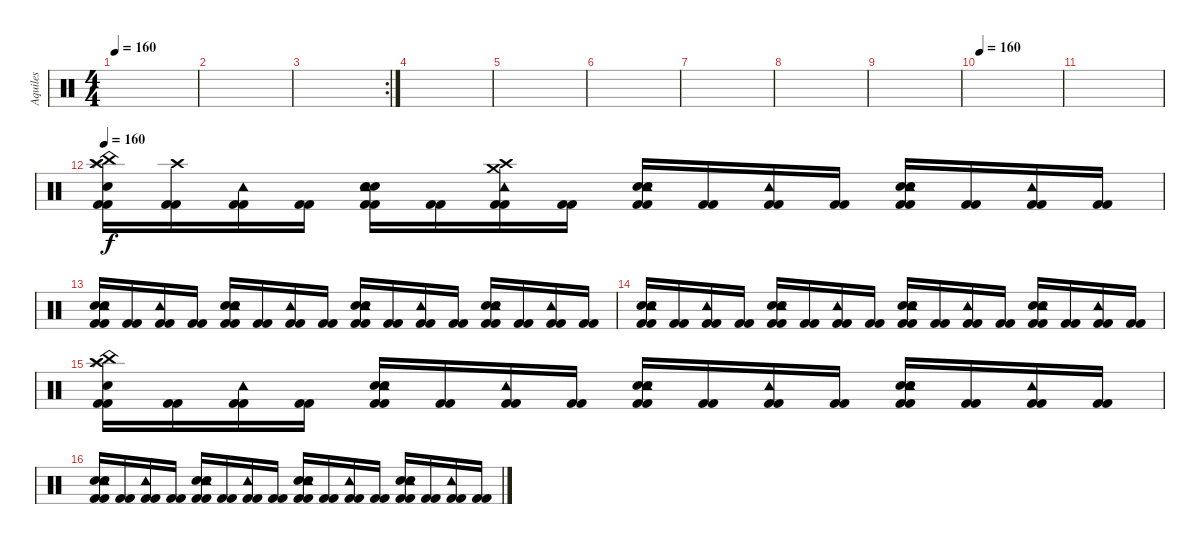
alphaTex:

\track ("Aquiles" "Aquiles") {instrument percussion}
\staff {score}
\articulation defaults
\ts (4 4)
\tempo 160
\clef neutral
\ks c
|
|
\rc 2
|
|
|
|
|
|
|
\tempo 160
|
|
\tempo 160
("Kick (hit) 2" "Kick (hit) 2" "Electric Snare (hit)" "Crash high (hit)" "Splash (hit)" "China (hit)").16 ("Kick (hit) 2" "Kick (hit) 2" "Crash high (hit)").16 ("Kick (hit) 2" "Kick (hit) 2" "Tambourine (hit)").16 ("Kick (hit) 2" "Kick (hit) 2").16 ("Kick (hit) 2" "Kick (hit) 2" "Electric Snare (hit)" "Electric Snare (hit)" "Tambourine (hit)").16 ("Kick (hit) 2" "Kick (hit) 2").16 ("Kick (hit) 2" "Kick (hit) 2" "Crash high (hit)" "Tambourine (hit)" "Crash medium (hit)").16 ("Kick (hit) 2" "Kick (hit) 2").16 ("Kick (hit) 2" "Kick (hit) 2" "Electric Snare (hit)" "Electric Snare (hit)" "Tambourine (hit)").16 ("Kick (hit) 2" "Kick (hit) 2").16 ("Kick (hit) 2" "Kick (hit) 2" "Tambourine (hit)").16 ("Kick (hit) 2" "Kick (hit) 2").16 ("Kick (hit) 2" "Kick (hit) 2" "Electric Snare (hit)" "Electric Snare (hit)" "Tambourine (hit)").16 ("Kick (hit) 2" "Kick (hit) 2").16 ("Kick (hit) 2" "Kick (hit) 2" "Tambourine (hit)").16 ("Kick (hit) 2" "Kick (hit) 2").16 |
("Kick (hit) 2" "Kick (hit) 2" "Electric Snare (hit)" "Electric Snare (hit)" "Tambourine (hit)").16 ("Kick (hit) 2" "Kick (hit) 2").16 ("Kick (hit) 2" "Kick (hit) 2" "Tambourine (hit)").16 ("Kick (hit) 2" "Kick (hit) 2").16 ("Kick (hit) 2" "Kick (hit) 2" "Electric Snare (hit)" "Electric Snare (hit)" "Tambourine (hit)").16 ("Kick (hit) 2" "Kick (hit) 2").16 ("Kick (hit) 2" "Kick (hit) 2" "Tambourine (hit)").16 ("Kick (hit) 2" "Kick (hit) 2").16 ("Kick (hit) 2" "Kick (hit) 2" "Electric Snare (hit)" "Electric Snare (hit)" "Tambourine (hit)").16 ("Kick (hit) 2" "Kick (hit) 2").16 ("Kick (hit) 2" "Kick (hit) 2" "Tambourine (hit)").16 ("Kick (hit) 2" "Kick (hit) 2").16 ("Kick (hit) 2" "Kick (hit) 2" "Electric Snare (hit)" "Electric Snare (hit)" "Tambourine (hit)").16 ("Kick (hit) 2" "Kick (hit) 2").16 ("Kick (hit) 2" "Kick (hit) 2" "Tambourine (hit)").16 ("Kick (hit) 2" "Kick (hit) 2").16 |
("Kick (hit) 2" "Kick (hit) 2" "Electric Snare (hit)" "Electric Snare (hit)" "Tambourine (hit)").16 ("Kick (hit) 2" "Kick (hit) 2").16 ("Kick (hit) 2" "Kick (hit) 2" "Tambourine (hit)").16 ("Kick (hit) 2" "Kick (hit) 2").16 ("Kick (hit) 2" "Kick (hit) 2" "Electric Snare (hit)" "Electric Snare (hit)" "Tambourine (hit)").16 ("Kick (hit) 2" "Kick (hit) 2").16 ("Kick (hit) 2" "Kick (hit) 2" "Tambourine (hit)").16 ("Kick (hit) 2" "Kick (hit) 2").16 ("Kick (hit) 2" "Kick (hit) 2" "Electric Snare (hit)" "Electric Snare (hit)" "Tambourine (hit)").16 ("Kick (hit) 2" "Kick (hit) 2").16 ("Kick (hit) 2" "Kick (hit) 2" "Tambourine (hit)").16 ("Kick (hit) 2" "Kick (hit) 2").16 ("Kick (hit) 2" "Kick (hit) 2" "Electric Snare (hit)" "Electric Snare (hit)" "Tambourine (hit)").16 ("Kick (hit) 2" "Kick (hit) 2").16 ("Kick (hit) 2" "Kick (hit) 2" "Tambourine (hit)").16 ("Kick (hit) 2" "Kick (hit) 2").16 |
("Kick (hit) 2" "Kick (hit) 2" "Electric Snare (hit)" "Crash high (hit)" "Splash (hit)" "China (hit)").16 ("Kick (hit) 2" "Kick (hit) 2").16 ("Kick (hit) 2" "Kick (hit) 2" "Tambourine (hit)").16 ("Kick (hit) 2" "Kick (hit) 2").16 ("Kick (hit) 2" "Kick (hit) 2" "Electric Snare (hit)" "Electric Snare (hit)" "Tambourine (hit)").16 ("Kick (hit) 2" "Kick (hit) 2").16 ("Kick (hit) 2" "Kick (hit) 2" "Tambourine (hit)").16 ("Kick (hit) 2" "Kick (hit) 2").16 ("Kick (hit) 2" "Kick (hit) 2" "Electric Snare (hit)" "Electric Snare (hit)" "Tambourine (hit)").16 ("Kick (hit) 2" "Kick (hit) 2").16 ("Kick (hit) 2" "Kick (hit) 2" "Tambourine (hit)").16 ("Kick (hit) 2" "Kick (hit) 2").16 ("Kick (hit) 2" "Kick (hit) 2" "Electric Snare (hit)" "Electric Snare (hit)" "Tambourine (hit)").16 ("Kick (hit) 2" "Kick (hit) 2").16 ("Kick (hit) 2" "Kick (hit) 2" "Tambourine (hit)").16 ("Kick (hit) 2" "Kick (hit) 2").16 |
("Kick (hit) 2" "Kick (hit) 2" "Electric Snare (hit)" "Electric Snare (hit)" "Tambourine (hit)").16 ("Kick (hit) 2" "Kick (hit) 2").16 ("Kick (hit) 2" "Kick (hit) 2" "Tambourine (hit)").16 ("Kick (hit) 2" "Kick (hit) 2").16 ("Kick (hit) 2" "Kick (hit) 2" "Electric Snare (hit)" "Electric Snare (hit)" "Tambourine (hit)").16 ("Kick (hit) 2" "Kick (hit) 2").16 ("Kick (hit) 2" "Kick (hit) 2" "Tambourine (hit)").16 ("Kick (hit) 2" "Kick (hit) 2").16 ("Kick (hit) 2" "Kick (hit) 2" "Electric Snare (hit)" "Electric Snare (hit)" "Tambourine (hit)").16 ("Kick (hit) 2" "Kick (hit) 2").16 ("Kick (hit) 2" "Kick (hit) 2" "Tambourine (hit)").16 ("Kick (hit) 2" "Kick (hit) 2").16 ("Kick (hit) 2" "Kick (hit) 2" "Electric Snare (hit)" "Electric Snare (hit)" "Tambourine (hit)").16 ("Kick (hit) 2" "Kick (hit) 2").16 ("Kick (hit) 2" "Kick (hit) 2" "Tambourine (hit)").16 ("Kick (hit) 2" "Kick (hit) 2").16
